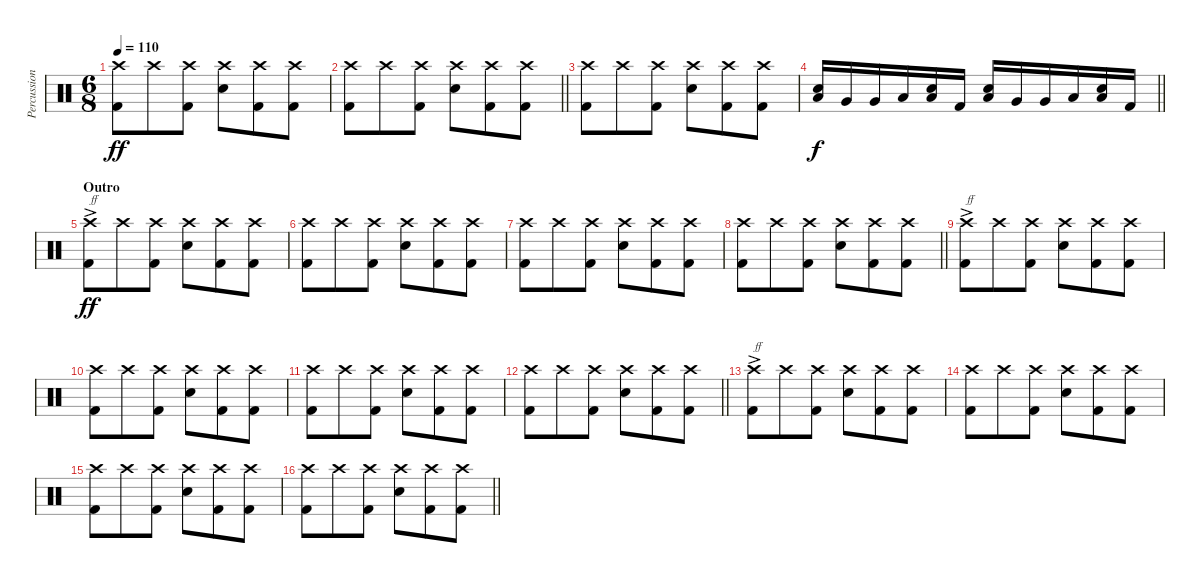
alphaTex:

\track ("Percussion" "Percussion") {instrument percussion}
\staff {score}
\articulation defaults
\ts (6 8)
\tempo 110
\clef neutral
\ks c
("Crash high (hit)" "Kick (hit) 2").8{dy ff} "Crash high (hit)".8 ("Crash high (hit)" "Kick (hit) 2").8 ("Crash high (hit)" "Snare (hit) 2").8 ("Crash high (hit)" "Kick (hit) 2").8 ("Crash high (hit)" "Kick (hit) 2").8 |
\barLineRight lightlight
("Crash high (hit)" "Kick (hit) 2").8 "Crash high (hit)".8 ("Crash high (hit)" "Kick (hit) 2").8 ("Crash high (hit)" "Snare (hit) 2").8 ("Crash high (hit)" "Kick (hit) 2").8 ("Crash high (hit)" "Kick (hit) 2").8 |
\section ("" "")
("Crash high (hit)" "Kick (hit) 2").8 "Crash high (hit)".8 ("Crash high (hit)" "Kick (hit) 2").8 ("Crash high (hit)" "Snare (hit) 2").8 ("Crash high (hit)" "Kick (hit) 2").8 ("Crash high (hit)" "Kick (hit) 2").8 |
\barLineRight lightlight
("Snare (hit) 2" "Low Tom (hit)").16{dy f} "Very Low Tom (hit)".16 "Very Low Tom (hit)".16 "Low Floor Tom (hit)".16 ("Snare (hit) 2" "Low Floor Tom (hit)").16 "Kick (hit) 2".16 ("Snare (hit) 2" "Low Tom (hit)").16 "Very Low Tom (hit)".16 "Very Low Tom (hit)".16 "Low Floor Tom (hit)".16 ("Snare (hit) 2" "Low Floor Tom (hit)").16 "Kick (hit) 2".16 |
\section ("" "Outro ")
("Crash high (hit)"{ac} "Kick (hit) 2"{ac}).8{txt "ff" dy ff} "Crash high (hit)".8 ("Crash high (hit)" "Kick (hit) 2").8 ("Crash high (hit)" "Snare (hit) 2").8 ("Crash high (hit)" "Kick (hit) 2").8 ("Crash high (hit)" "Kick (hit) 2").8 |
("Crash high (hit)" "Kick (hit) 2").8 "Crash high (hit)".8 ("Crash high (hit)" "Kick (hit) 2").8 ("Crash high (hit)" "Snare (hit) 2").8 ("Crash high (hit)" "Kick (hit) 2").8 ("Crash high (hit)" "Kick (hit) 2").8 |
("Crash high (hit)" "Kick (hit) 2").8 "Crash high (hit)".8 ("Crash high (hit)" "Kick (hit) 2").8 ("Crash high (hit)" "Snare (hit) 2").8 ("Crash high (hit)" "Kick (hit) 2").8 ("Crash high (hit)" "Kick (hit) 2").8 |
\barLineRight lightlight
("Crash high (hit)" "Kick (hit) 2").8 "Crash high (hit)".8 ("Crash high (hit)" "Kick (hit) 2").8 ("Crash high (hit)" "Snare (hit) 2").8 ("Crash high (hit)" "Kick (hit) 2").8 ("Crash high (hit)" "Kick (hit) 2").8 |
\section ("" "")
("Crash high (hit)"{ac} "Kick (hit) 2"{ac}).8{txt "ff"} "Crash high (hit)".8 ("Crash high (hit)" "Kick (hit) 2").8 ("Crash high (hit)" "Snare (hit) 2").8 ("Crash high (hit)" "Kick (hit) 2").8 ("Crash high (hit)" "Kick (hit) 2").8 |
("Crash high (hit)" "Kick (hit) 2").8 "Crash high (hit)".8 ("Crash high (hit)" "Kick (hit) 2").8 ("Crash high (hit)" "Snare (hit) 2").8 ("Crash high (hit)" "Kick (hit) 2").8 ("Crash high (hit)" "Kick (hit) 2").8 |
("Crash high (hit)" "Kick (hit) 2").8 "Crash high (hit)".8 ("Crash high (hit)" "Kick (hit) 2").8 ("Crash high (hit)" "Snare (hit) 2").8 ("Crash high (hit)" "Kick (hit) 2").8 ("Crash high (hit)" "Kick (hit) 2").8 |
\barLineRight lightlight
("Crash high (hit)" "Kick (hit) 2").8 "Crash high (hit)".8 ("Crash high (hit)" "Kick (hit) 2").8 ("Crash high (hit)" "Snare (hit) 2").8 ("Crash high (hit)" "Kick (hit) 2").8 ("Crash high (hit)" "Kick (hit) 2").8 |
\section ("" "")
("Crash high (hit)"{ac} "Kick (hit) 2"{ac}).8{txt "ff"} "Crash high (hit)".8 ("Crash high (hit)" "Kick (hit) 2").8 ("Crash high (hit)" "Snare (hit) 2").8 ("Crash high (hit)" "Kick (hit) 2").8 ("Crash high (hit)" "Kick (hit) 2").8 |
("Crash high (hit)" "Kick (hit) 2").8 "Crash high (hit)".8 ("Crash high (hit)" "Kick (hit) 2").8 ("Crash high (hit)" "Snare (hit) 2").8 ("Crash high (hit)" "Kick (hit) 2").8 ("Crash high (hit)" "Kick (hit) 2").8 |
("Crash high (hit)" "Kick (hit) 2").8 "Crash high (hit)".8 ("Crash high (hit)" "Kick (hit) 2").8 ("Crash high (hit)" "Snare (hit) 2").8 ("Crash high (hit)" "Kick (hit) 2").8 ("Crash high (hit)" "Kick (hit) 2").8 |
\barLineRight lightlight
("Crash high (hit)" "Kick (hit) 2").8 "Crash high (hit)".8 ("Crash high (hit)" "Kick (hit) 2").8 ("Crash high (hit)" "Snare (hit) 2").8 ("Crash high (hit)" "Kick (hit) 2").8 ("Crash high (hit)" "Kick (hit) 2").8
